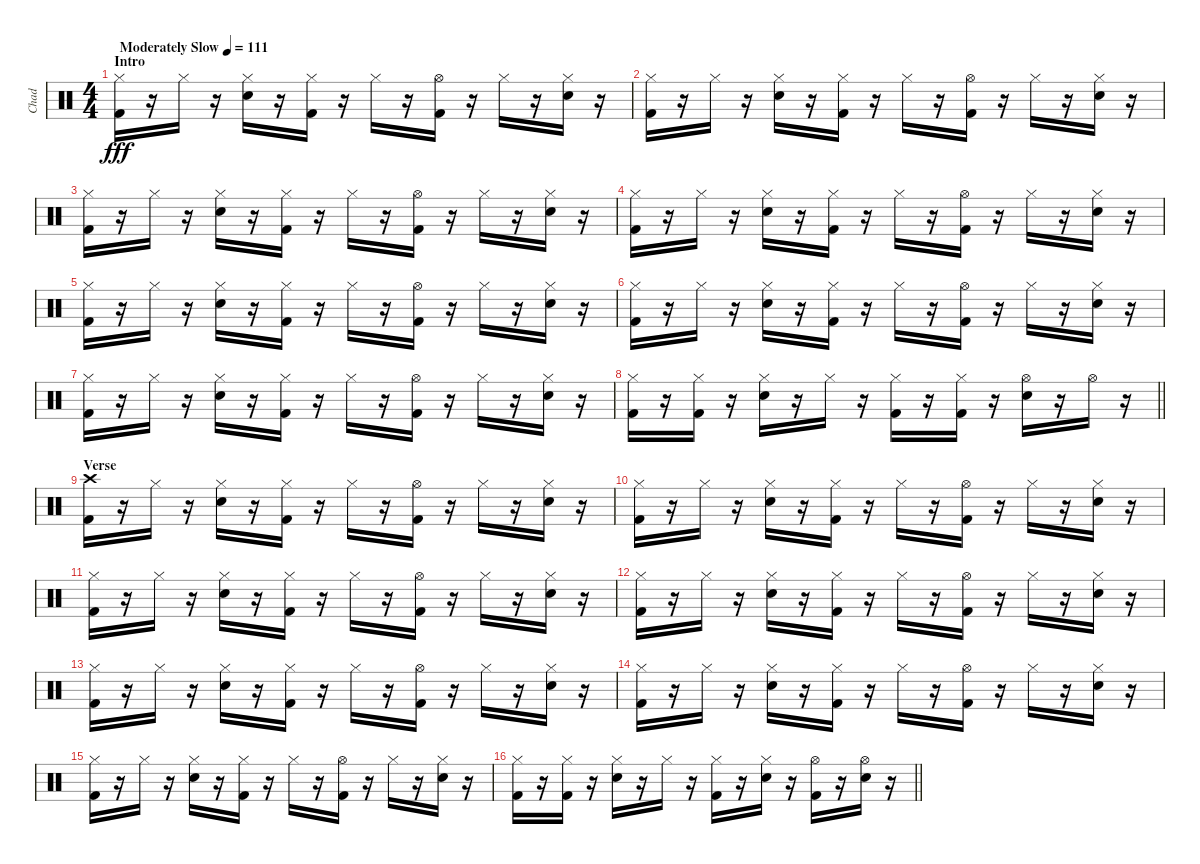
\track ("Chad" "Chad") {instrument percussion}
\staff {score}
\articulation defaults
\ts (4 4)
\section ("" "Intro")
\tempo (111 "Moderately Slow")
\clef neutral
\ks c
("Hi-Hat (closed)" "Kick (hit) 2").16{dy fff} r.16 "Hi-Hat (closed)".16 r.16 ("Hi-Hat (closed)" "Electric Snare (hit)").16 r.16 ("Hi-Hat (closed)" "Kick (hit) 2").16 r.16 "Hi-Hat (closed)".16 r.16 ("Hi-Hat (open)" "Kick (hit) 2").16 r.16 "Hi-Hat (closed)".16 r.16 ("Hi-Hat (closed)" "Electric Snare (hit)").16 r.16 |
("Hi-Hat (closed)" "Kick (hit) 2").16 r.16 "Hi-Hat (closed)".16 r.16 ("Hi-Hat (closed)" "Electric Snare (hit)").16 r.16 ("Hi-Hat (closed)" "Kick (hit) 2").16 r.16 "Hi-Hat (closed)".16 r.16 ("Hi-Hat (open)" "Kick (hit) 2").16 r.16 "Hi-Hat (closed)".16 r.16 ("Hi-Hat (closed)" "Electric Snare (hit)").16 r.16 |
("Hi-Hat (closed)" "Kick (hit) 2").16 r.16 "Hi-Hat (closed)".16 r.16 ("Hi-Hat (closed)" "Electric Snare (hit)").16 r.16 ("Hi-Hat (closed)" "Kick (hit) 2").16 r.16 "Hi-Hat (closed)".16 r.16 ("Hi-Hat (open)" "Kick (hit) 2").16 r.16 "Hi-Hat (closed)".16 r.16 ("Hi-Hat (closed)" "Electric Snare (hit)").16 r.16 |
("Hi-Hat (closed)" "Kick (hit) 2").16 r.16 "Hi-Hat (closed)".16 r.16 ("Hi-Hat (closed)" "Electric Snare (hit)").16 r.16 ("Hi-Hat (closed)" "Kick (hit) 2").16 r.16 "Hi-Hat (closed)".16 r.16 ("Hi-Hat (open)" "Kick (hit) 2").16 r.16 "Hi-Hat (closed)".16 r.16 ("Hi-Hat (closed)" "Electric Snare (hit)").16 r.16 |
("Hi-Hat (closed)" "Kick (hit) 2").16 r.16 "Hi-Hat (closed)".16 r.16 ("Hi-Hat (closed)" "Electric Snare (hit)").16 r.16 ("Hi-Hat (closed)" "Kick (hit) 2").16 r.16 "Hi-Hat (closed)".16 r.16 ("Hi-Hat (open)" "Kick (hit) 2").16 r.16 "Hi-Hat (closed)".16 r.16 ("Hi-Hat (closed)" "Electric Snare (hit)").16 r.16 |
("Hi-Hat (closed)" "Kick (hit) 2").16 r.16 "Hi-Hat (closed)".16 r.16 ("Hi-Hat (closed)" "Electric Snare (hit)").16 r.16 ("Hi-Hat (closed)" "Kick (hit) 2").16 r.16 "Hi-Hat (closed)".16 r.16 ("Hi-Hat (open)" "Kick (hit) 2").16 r.16 "Hi-Hat (closed)".16 r.16 ("Hi-Hat (closed)" "Electric Snare (hit)").16 r.16 |
("Hi-Hat (closed)" "Kick (hit) 2").16 r.16 "Hi-Hat (closed)".16 r.16 ("Hi-Hat (closed)" "Electric Snare (hit)").16 r.16 ("Hi-Hat (closed)" "Kick (hit) 2").16 r.16 "Hi-Hat (closed)".16 r.16 ("Hi-Hat (open)" "Kick (hit) 2").16 r.16 "Hi-Hat (closed)".16 r.16 ("Hi-Hat (closed)" "Electric Snare (hit)").16 r.16 |
\barLineRight lightlight
("Hi-Hat (closed)" "Kick (hit) 2").16 r.16 ("Hi-Hat (closed)" "Kick (hit) 2").16 r.16 ("Hi-Hat (closed)" "Electric Snare (hit)").16 r.16 "Hi-Hat (closed)".16 r.16 ("Hi-Hat (closed)" "Kick (hit) 2").16 r.16 ("Hi-Hat (closed)" "Kick (hit) 2").16 r.16 ("Hi-Hat (open)" "Electric Snare (hit)").16 r.16 "Hi-Hat (open)".16 r.16 |
\section ("" "Verse")
("Crash high (hit)" "Kick (hit) 2").16 r.16 "Hi-Hat (closed)".16 r.16 ("Hi-Hat (closed)" "Electric Snare (hit)").16 r.16 ("Hi-Hat (closed)" "Kick (hit) 2").16 r.16 "Hi-Hat (closed)".16 r.16 ("Hi-Hat (open)" "Kick (hit) 2").16 r.16 "Hi-Hat (closed)".16 r.16 ("Hi-Hat (closed)" "Electric Snare (hit)").16 r.16 |
("Hi-Hat (closed)" "Kick (hit) 2").16 r.16 "Hi-Hat (closed)".16 r.16 ("Hi-Hat (closed)" "Electric Snare (hit)").16 r.16 ("Hi-Hat (closed)" "Kick (hit) 2").16 r.16 "Hi-Hat (closed)".16 r.16 ("Hi-Hat (open)" "Kick (hit) 2").16 r.16 "Hi-Hat (closed)".16 r.16 ("Hi-Hat (closed)" "Electric Snare (hit)").16 r.16 |
("Hi-Hat (closed)" "Kick (hit) 2").16 r.16 "Hi-Hat (closed)".16 r.16 ("Hi-Hat (closed)" "Electric Snare (hit)").16 r.16 ("Hi-Hat (closed)" "Kick (hit) 2").16 r.16 "Hi-Hat (closed)".16 r.16 ("Hi-Hat (open)" "Kick (hit) 2").16 r.16 "Hi-Hat (closed)".16 r.16 ("Hi-Hat (closed)" "Electric Snare (hit)").16 r.16 |
("Hi-Hat (closed)" "Kick (hit) 2").16 r.16 "Hi-Hat (closed)".16 r.16 ("Hi-Hat (closed)" "Electric Snare (hit)").16 r.16 ("Hi-Hat (closed)" "Kick (hit) 2").16 r.16 "Hi-Hat (closed)".16 r.16 ("Hi-Hat (open)" "Kick (hit) 2").16 r.16 "Hi-Hat (closed)".16 r.16 ("Hi-Hat (closed)" "Electric Snare (hit)").16 r.16 |
("Hi-Hat (closed)" "Kick (hit) 2").16 r.16 "Hi-Hat (closed)".16 r.16 ("Hi-Hat (closed)" "Electric Snare (hit)").16 r.16 ("Hi-Hat (closed)" "Kick (hit) 2").16 r.16 "Hi-Hat (closed)".16 r.16 ("Hi-Hat (open)" "Kick (hit) 2").16 r.16 "Hi-Hat (closed)".16 r.16 ("Hi-Hat (closed)" "Electric Snare (hit)").16 r.16 |
("Hi-Hat (closed)" "Kick (hit) 2").16 r.16 "Hi-Hat (closed)".16 r.16 ("Hi-Hat (closed)" "Electric Snare (hit)").16 r.16 ("Hi-Hat (closed)" "Kick (hit) 2").16 r.16 "Hi-Hat (closed)".16 r.16 ("Hi-Hat (open)" "Kick (hit) 2").16 r.16 "Hi-Hat (closed)".16 r.16 ("Hi-Hat (closed)" "Electric Snare (hit)").16 r.16 |
("Hi-Hat (closed)" "Kick (hit) 2").16 r.16 "Hi-Hat (closed)".16 r.16 ("Hi-Hat (closed)" "Electric Snare (hit)").16 r.16 ("Hi-Hat (closed)" "Kick (hit) 2").16 r.16 "Hi-Hat (closed)".16 r.16 ("Hi-Hat (open)" "Kick (hit) 2").16 r.16 "Hi-Hat (closed)".16 r.16 ("Hi-Hat (closed)" "Electric Snare (hit)").16 r.16 |
\barLineRight lightlight
("Hi-Hat (closed)" "Kick (hit) 2").16 r.16 ("Hi-Hat (closed)" "Kick (hit) 2").16 r.16 ("Hi-Hat (closed)" "Electric Snare (hit)").16 r.16 "Hi-Hat (closed)".16 r.16 ("Hi-Hat (closed)" "Kick (hit) 2").16 r.16 ("Hi-Hat (closed)" "Electric Snare (hit)").16 r.16 ("Hi-Hat (open)" "Kick (hit) 2").16 r.16 ("Hi-Hat (open)" "Electric Snare (hit)").16 r.16
